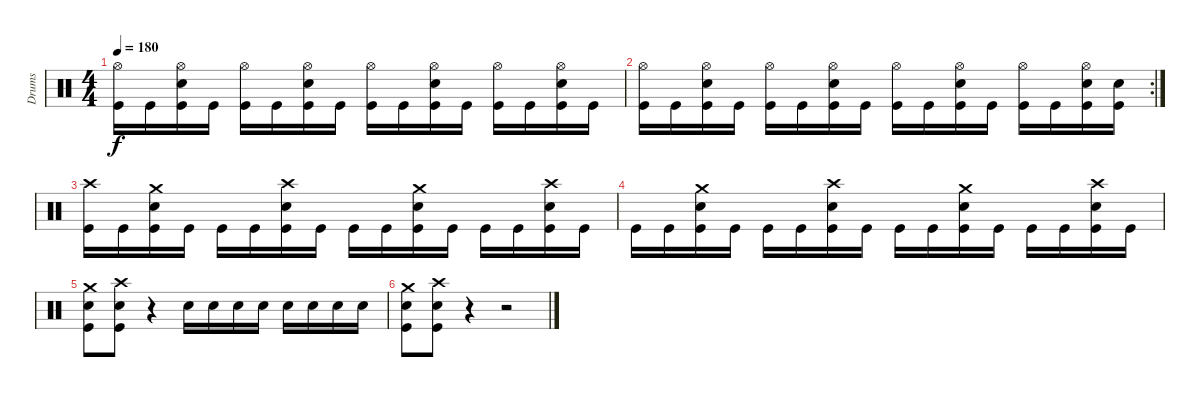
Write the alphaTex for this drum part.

\track ("Drums" "Drums") {instrument percussion}
\staff {score}
\articulation defaults
\ts (4 4)
\tempo 180
\clef neutral
\ks c
("Hi-Hat (open)" "Kick (hit)").16{dy f} "Kick (hit)".16 ("Hi-Hat (open)" "Electric Snare (hit)" "Kick (hit)").16 "Kick (hit)".16 ("Hi-Hat (open)" "Kick (hit)").16 "Kick (hit)".16 ("Hi-Hat (open)" "Electric Snare (hit)" "Kick (hit)").16 "Kick (hit)".16 ("Hi-Hat (open)" "Kick (hit)").16 "Kick (hit)".16 ("Hi-Hat (open)" "Electric Snare (hit)" "Kick (hit)").16 "Kick (hit)".16 ("Hi-Hat (open)" "Kick (hit)").16 "Kick (hit)".16 ("Hi-Hat (open)" "Electric Snare (hit)" "Kick (hit)").16 "Kick (hit)".16 |
\rc 2
("Hi-Hat (open)" "Kick (hit)").16 "Kick (hit)".16 ("Hi-Hat (open)" "Electric Snare (hit)" "Kick (hit)").16 "Kick (hit)".16 ("Hi-Hat (open)" "Kick (hit)").16 "Kick (hit)".16 ("Hi-Hat (open)" "Electric Snare (hit)" "Kick (hit)").16 "Kick (hit)".16 ("Hi-Hat (open)" "Kick (hit)").16 "Kick (hit)".16 ("Hi-Hat (open)" "Electric Snare (hit)" "Kick (hit)").16 "Kick (hit)".16 ("Hi-Hat (open)" "Kick (hit)").16 "Kick (hit)".16 ("Hi-Hat (open)" "Electric Snare (hit)" "Kick (hit)").16 ("Electric Snare (hit)" "Kick (hit)").16 |
("Crash high (hit)" "Kick (hit)").16 "Kick (hit)".16 ("Crash medium (hit)" "Electric Snare (hit)" "Kick (hit)").16 "Kick (hit)".16 "Kick (hit)".16 "Kick (hit)".16 ("Crash high (hit)" "Electric Snare (hit)" "Kick (hit)").16 "Kick (hit)".16 "Kick (hit)".16 "Kick (hit)".16 ("Crash medium (hit)" "Electric Snare (hit)" "Kick (hit)").16 "Kick (hit)".16 "Kick (hit)".16 "Kick (hit)".16 ("Crash high (hit)" "Electric Snare (hit)" "Kick (hit)").16 "Kick (hit)".16 |
"Kick (hit)".16 "Kick (hit)".16 ("Crash medium (hit)" "Electric Snare (hit)" "Kick (hit)").16 "Kick (hit)".16 "Kick (hit)".16 "Kick (hit)".16 ("Crash high (hit)" "Electric Snare (hit)" "Kick (hit)").16 "Kick (hit)".16 "Kick (hit)".16 "Kick (hit)".16 ("Crash medium (hit)" "Electric Snare (hit)" "Kick (hit)").16 "Kick (hit)".16 "Kick (hit)".16 "Kick (hit)".16 ("Crash high (hit)" "Electric Snare (hit)" "Kick (hit)").16 "Kick (hit)".16 |
("Crash medium (hit)" "Electric Snare (hit)" "Kick (hit)").8 ("Crash high (hit)" "Electric Snare (hit)" "Kick (hit)").8 r.4 "Electric Snare (hit)".16 "Electric Snare (hit)".16 "Electric Snare (hit)".16 "Electric Snare (hit)".16 "Electric Snare (hit)".16 "Electric Snare (hit)".16 "Electric Snare (hit)".16 "Electric Snare (hit)".16 |
("Crash medium (hit)" "Electric Snare (hit)" "Kick (hit)").8 ("Crash high (hit)" "Electric Snare (hit)" "Kick (hit)").8 r.4 r.2
